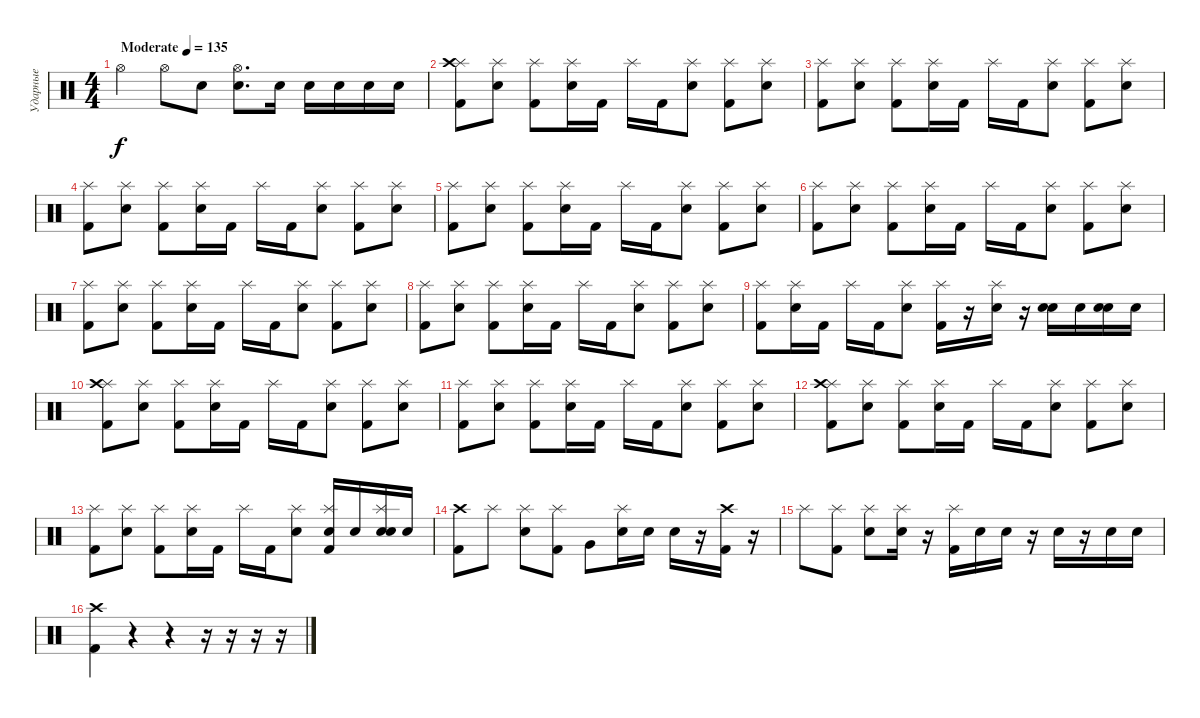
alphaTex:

\track ("Ударные" "Ударные") {instrument percussion}
\staff {score}
\articulation defaults
\ts (4 4)
\tempo (135 "Moderate")
\clef neutral
\ks c "Hi-Hat (open)".4{dy f} "Hi-Hat (open)".8 "Snare (hit) 2".8
("Hi-Hat (open)" "Snare (hit) 2").8{d} "Snare (hit) 2".16 "Snare (hit) 2".16 "Snare (hit) 2".16 "Snare (hit) 2".16 "Snare (hit) 2".16 |
("Splash (hit)" "Crash high (hit)" "Kick (hit) 2").8 ("Splash (hit)" "Electric Snare (hit)").8 ("Splash (hit)" "Kick (hit) 2").8 ("Splash (hit)" "Electric Snare (hit)").16 "Kick (hit) 2".16 "Splash (hit)".16 "Kick (hit) 2".16 ("Splash (hit)" "Electric Snare (hit)").8 ("Splash (hit)" "Kick (hit) 2").8 ("Splash (hit)" "Electric Snare (hit)").8 |
("Splash (hit)" "Kick (hit) 2").8 ("Splash (hit)" "Electric Snare (hit)").8 ("Splash (hit)" "Kick (hit) 2").8 ("Splash (hit)" "Electric Snare (hit)").16 "Kick (hit) 2".16 "Splash (hit)".16 "Kick (hit) 2".16 ("Splash (hit)" "Electric Snare (hit)").8 ("Splash (hit)" "Kick (hit) 2").8 ("Splash (hit)" "Electric Snare (hit)").8 |
("Splash (hit)" "Kick (hit) 2").8 ("Splash (hit)" "Electric Snare (hit)").8 ("Splash (hit)" "Kick (hit) 2").8 ("Splash (hit)" "Electric Snare (hit)").16 "Kick (hit) 2".16 "Splash (hit)".16 "Kick (hit) 2".16 ("Splash (hit)" "Electric Snare (hit)").8 ("Splash (hit)" "Kick (hit) 2").8 ("Splash (hit)" "Electric Snare (hit)").8 |
("Splash (hit)" "Kick (hit) 2").8 ("Splash (hit)" "Electric Snare (hit)").8 ("Splash (hit)" "Kick (hit) 2").8 ("Splash (hit)" "Electric Snare (hit)").16 "Kick (hit) 2".16 "Splash (hit)".16 "Kick (hit) 2".16 ("Splash (hit)" "Electric Snare (hit)").8 ("Splash (hit)" "Kick (hit) 2").8 ("Splash (hit)" "Electric Snare (hit)").8 |
("Splash (hit)" "Kick (hit) 2").8 ("Splash (hit)" "Electric Snare (hit)").8 ("Splash (hit)" "Kick (hit) 2").8 ("Splash (hit)" "Electric Snare (hit)").16 "Kick (hit) 2".16 "Splash (hit)".16 "Kick (hit) 2".16 ("Splash (hit)" "Electric Snare (hit)").8 ("Splash (hit)" "Kick (hit) 2").8 ("Splash (hit)" "Electric Snare (hit)").8 |
("Splash (hit)" "Kick (hit) 2").8 ("Splash (hit)" "Electric Snare (hit)").8 ("Splash (hit)" "Kick (hit) 2").8 ("Splash (hit)" "Electric Snare (hit)").16 "Kick (hit) 2".16 "Splash (hit)".16 "Kick (hit) 2".16 ("Splash (hit)" "Electric Snare (hit)").8 ("Splash (hit)" "Kick (hit) 2").8 ("Splash (hit)" "Electric Snare (hit)").8 |
("Splash (hit)" "Kick (hit) 2").8 ("Splash (hit)" "Electric Snare (hit)").8 ("Splash (hit)" "Kick (hit) 2").8 ("Splash (hit)" "Electric Snare (hit)").16 "Kick (hit) 2".16 "Splash (hit)".16 "Kick (hit) 2".16 ("Splash (hit)" "Electric Snare (hit)").8 ("Splash (hit)" "Kick (hit) 2").8 ("Splash (hit)" "Electric Snare (hit)").8 |
("Splash (hit)" "Kick (hit) 2").8 ("Splash (hit)" "Electric Snare (hit)").16 "Kick (hit) 2".16 "Splash (hit)".16 "Kick (hit) 2".16 ("Splash (hit)" "Electric Snare (hit)").8 ("Splash (hit)" "Kick (hit) 2").16 r.16 ("Splash (hit)" "Electric Snare (hit)").16 r.16 ("Snare (hit) 2" "Electric Snare (hit)").16 "Snare (hit) 2".16 ("Snare (hit) 2" "Electric Snare (hit)").16 "Snare (hit) 2".16 |
("Splash (hit)" "Crash high (hit)" "Kick (hit) 2").8 ("Splash (hit)" "Electric Snare (hit)").8 ("Splash (hit)" "Kick (hit) 2").8 ("Splash (hit)" "Electric Snare (hit)").16 "Kick (hit) 2".16 "Splash (hit)".16 "Kick (hit) 2".16 ("Splash (hit)" "Electric Snare (hit)").8 ("Splash (hit)" "Kick (hit) 2").8 ("Splash (hit)" "Electric Snare (hit)").8 |
("Splash (hit)" "Kick (hit) 2").8 ("Splash (hit)" "Electric Snare (hit)").8 ("Splash (hit)" "Kick (hit) 2").8 ("Splash (hit)" "Electric Snare (hit)").16 "Kick (hit) 2".16 "Splash (hit)".16 "Kick (hit) 2".16 ("Splash (hit)" "Electric Snare (hit)").8 ("Splash (hit)" "Kick (hit) 2").8 ("Splash (hit)" "Electric Snare (hit)").8 |
("Splash (hit)" "Crash high (hit)" "Kick (hit) 2").8 ("Splash (hit)" "Electric Snare (hit)").8 ("Splash (hit)" "Kick (hit) 2").8 ("Splash (hit)" "Electric Snare (hit)").16 "Kick (hit) 2".16 "Splash (hit)".16 "Kick (hit) 2".16 ("Splash (hit)" "Electric Snare (hit)").8 ("Splash (hit)" "Kick (hit) 2").8 ("Splash (hit)" "Electric Snare (hit)").8 |
("Splash (hit)" "Kick (hit) 2").8 ("Splash (hit)" "Electric Snare (hit)").8 ("Splash (hit)" "Kick (hit) 2").8 ("Splash (hit)" "Electric Snare (hit)").16 "Kick (hit) 2".16 "Splash (hit)".16 "Kick (hit) 2".16 ("Splash (hit)" "Electric Snare (hit)").8 ("Splash (hit)" "Snare (hit) 2" "Kick (hit) 2").16 "Snare (hit) 2".16 ("Splash (hit)" "Snare (hit) 2" "Electric Snare (hit)").16 "Snare (hit) 2".16 |
("Crash high (hit)" "Kick (hit) 2").8 "Splash (hit)".8 ("Splash (hit)" "Electric Snare (hit)").8 ("Splash (hit)" "Kick (hit) 2").8 "Very Low Tom (hit)".8 ("Splash (hit)" "Electric Snare (hit)").16 "Electric Snare (hit)".16 "Electric Snare (hit)".16 r.16 ("Crash high (hit)" "Kick (hit) 2").16 r.16 |
"Splash (hit)".8 ("Splash (hit)" "Kick (hit) 2").8 ("Splash (hit)" "Electric Snare (hit)").8 ("Splash (hit)" "Snare (hit) 2").16 r.16 ("Splash (hit)" "Kick (hit) 2").16 "Electric Snare (hit)".16 "Snare (hit) 2".16 r.16 "Electric Snare (hit)".16 r.16 "Snare (hit) 2".16 "Electric Snare (hit)".16 |
("Crash high (hit)" "Kick (hit) 2").4 r.4 r.4 r.16 r.16 r.16 r.16
